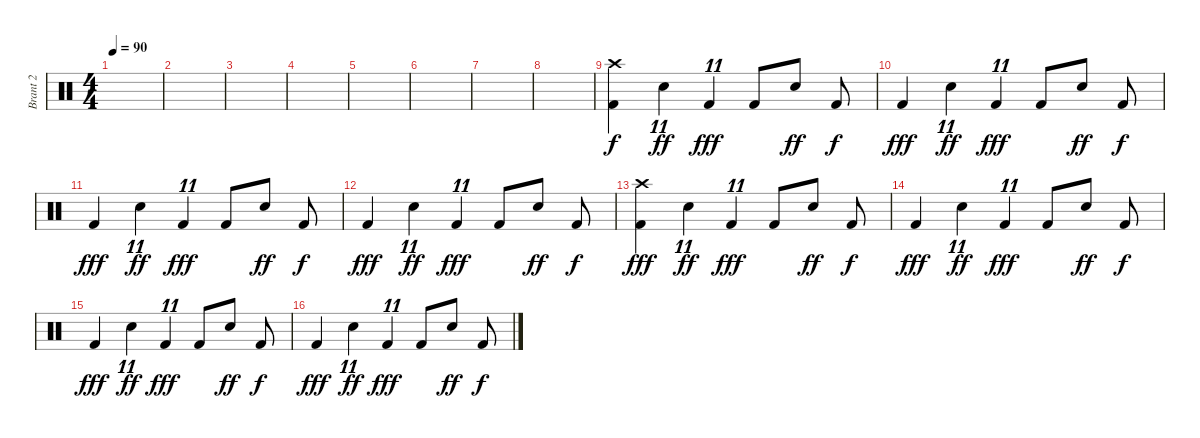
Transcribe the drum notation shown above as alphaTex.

\track ("Brant 2" "Brant 2") {instrument percussion}
\staff {score}
\articulation defaults
\ts (4 4)
\tempo 90
\clef neutral
\ks c
|
|
|
|
|
|
|
|
("Crash high (hit)" "Kick (hit) 2").4 "Electric Snare (hit)".4{tu (11 8) dy ff} "Kick (hit) 2".4{tu (11 8) dy fff} "Kick (hit) 2".8 "Electric Snare (hit)".8{dy ff} "Kick (hit) 2".8{dy f} |
"Kick (hit) 2".4{dy fff} "Electric Snare (hit)".4{tu (11 8) dy ff} "Kick (hit) 2".4{tu (11 8) dy fff} "Kick (hit) 2".8 "Electric Snare (hit)".8{dy ff} "Kick (hit) 2".8{dy f} |
"Kick (hit) 2".4{dy fff} "Electric Snare (hit)".4{tu (11 8) dy ff} "Kick (hit) 2".4{tu (11 8) dy fff} "Kick (hit) 2".8 "Electric Snare (hit)".8{dy ff} "Kick (hit) 2".8{dy f} |
"Kick (hit) 2".4{dy fff} "Electric Snare (hit)".4{tu (11 8) dy ff} "Kick (hit) 2".4{tu (11 8) dy fff} "Kick (hit) 2".8 "Electric Snare (hit)".8{dy ff} "Kick (hit) 2".8{dy f} |
("Crash high (hit)" "Kick (hit) 2").4{dy fff} "Electric Snare (hit)".4{tu (11 8) dy ff} "Kick (hit) 2".4{tu (11 8) dy fff} "Kick (hit) 2".8 "Electric Snare (hit)".8{dy ff} "Kick (hit) 2".8{dy f} |
"Kick (hit) 2".4{dy fff} "Electric Snare (hit)".4{tu (11 8) dy ff} "Kick (hit) 2".4{tu (11 8) dy fff} "Kick (hit) 2".8 "Electric Snare (hit)".8{dy ff} "Kick (hit) 2".8{dy f} |
"Kick (hit) 2".4{dy fff} "Electric Snare (hit)".4{tu (11 8) dy ff} "Kick (hit) 2".4{tu (11 8) dy fff} "Kick (hit) 2".8 "Electric Snare (hit)".8{dy ff} "Kick (hit) 2".8{dy f} |
"Kick (hit) 2".4{dy fff} "Electric Snare (hit)".4{tu (11 8) dy ff} "Kick (hit) 2".4{tu (11 8) dy fff} "Kick (hit) 2".8 "Electric Snare (hit)".8{dy ff} "Kick (hit) 2".8{dy f}
